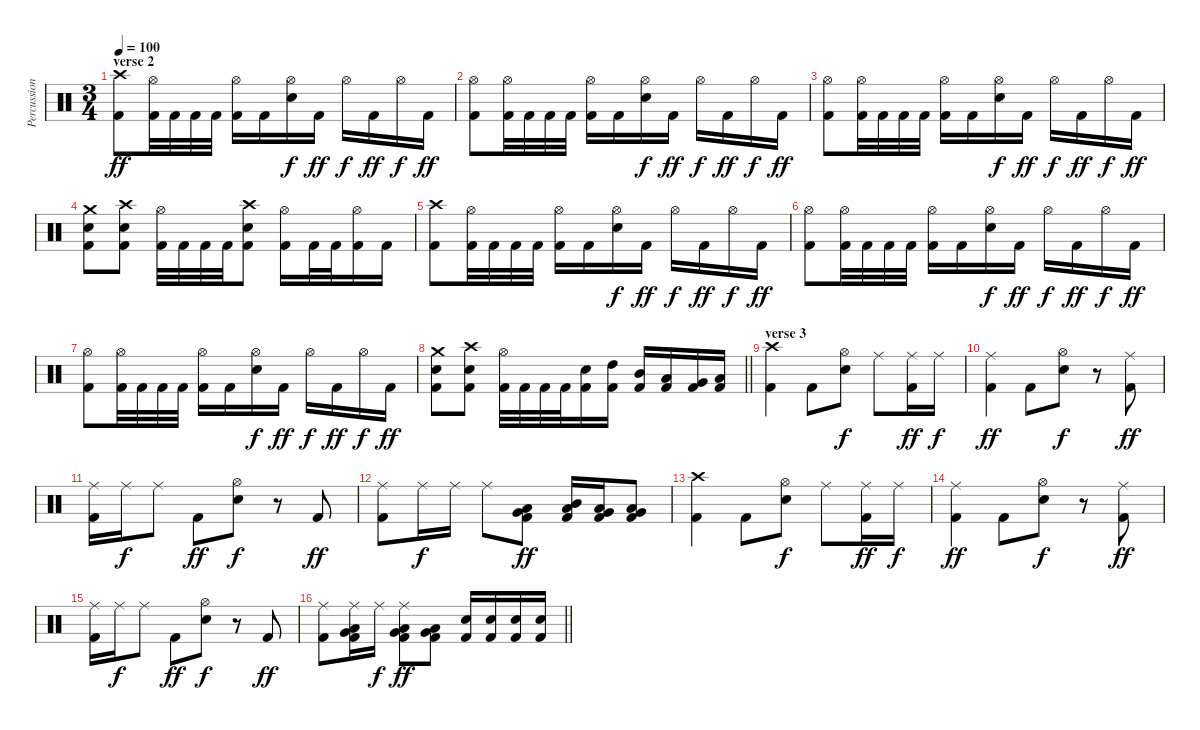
\track ("Percussion" "Percussion") {instrument percussion}
\staff {score}
\articulation defaults
\ts (3 4)
\section ("" "verse 2")
\tempo 100
\clef neutral
\ks c
("Crash high (hit)" "Kick (hit) 2").8{dy ff} ("Hi-Hat (open)" "Kick (hit) 2").32 "Kick (hit) 2".32 "Kick (hit) 2".32 "Kick (hit) 2".32 ("Hi-Hat (open)" "Kick (hit) 2").16 "Kick (hit) 2".16 ("Hi-Hat (open)" "Snare (hit) 2").16{dy f} "Kick (hit) 2".16{dy ff} "Hi-Hat (open)".16{dy f} "Kick (hit) 2".16{dy ff} "Hi-Hat (open)".16{dy f} "Kick (hit) 2".16{dy ff} |
("Hi-Hat (open)" "Kick (hit) 2").8 ("Hi-Hat (open)" "Kick (hit) 2").32 "Kick (hit) 2".32 "Kick (hit) 2".32 "Kick (hit) 2".32 ("Hi-Hat (open)" "Kick (hit) 2").16 "Kick (hit) 2".16 ("Hi-Hat (open)" "Snare (hit) 2").16{dy f} "Kick (hit) 2".16{dy ff} "Hi-Hat (open)".16{dy f} "Kick (hit) 2".16{dy ff} "Hi-Hat (open)".16{dy f} "Kick (hit) 2".16{dy ff} |
("Hi-Hat (open)" "Kick (hit) 2").8 ("Hi-Hat (open)" "Kick (hit) 2").32 "Kick (hit) 2".32 "Kick (hit) 2".32 "Kick (hit) 2".32 ("Hi-Hat (open)" "Kick (hit) 2").16 "Kick (hit) 2".16 ("Hi-Hat (open)" "Snare (hit) 2").16{dy f} "Kick (hit) 2".16{dy ff} "Hi-Hat (open)".16{dy f} "Kick (hit) 2".16{dy ff} "Hi-Hat (open)".16{dy f} "Kick (hit) 2".16{dy ff} |
("Crash medium (hit)" "Snare (hit) 2" "Kick (hit) 2").8 ("Crash high (hit)" "Snare (hit) 2" "Kick (hit) 2").8 ("Hi-Hat (open)" "Kick (hit) 2").32 "Kick (hit) 2".32 "Kick (hit) 2".32 "Kick (hit) 2".32 ("Crash high (hit)" "Snare (hit) 2" "Kick (hit) 2").8 ("Hi-Hat (open)" "Kick (hit) 2").16 "Kick (hit) 2".32 "Kick (hit) 2".32 ("Hi-Hat (open)" "Kick (hit) 2").16 "Kick (hit) 2".16 |
("Crash high (hit)" "Kick (hit) 2").8 ("Hi-Hat (open)" "Kick (hit) 2").32 "Kick (hit) 2".32 "Kick (hit) 2".32 "Kick (hit) 2".32 ("Hi-Hat (open)" "Kick (hit) 2").16 "Kick (hit) 2".16 ("Hi-Hat (open)" "Snare (hit) 2").16{dy f} "Kick (hit) 2".16{dy ff} "Hi-Hat (open)".16{dy f} "Kick (hit) 2".16{dy ff} "Hi-Hat (open)".16{dy f} "Kick (hit) 2".16{dy ff} |
("Hi-Hat (open)" "Kick (hit) 2").8 ("Hi-Hat (open)" "Kick (hit) 2").32 "Kick (hit) 2".32 "Kick (hit) 2".32 "Kick (hit) 2".32 ("Hi-Hat (open)" "Kick (hit) 2").16 "Kick (hit) 2".16 ("Hi-Hat (open)" "Snare (hit) 2").16{dy f} "Kick (hit) 2".16{dy ff} "Hi-Hat (open)".16{dy f} "Kick (hit) 2".16{dy ff} "Hi-Hat (open)".16{dy f} "Kick (hit) 2".16{dy ff} |
("Hi-Hat (open)" "Kick (hit) 2").8 ("Hi-Hat (open)" "Kick (hit) 2").32 "Kick (hit) 2".32 "Kick (hit) 2".32 "Kick (hit) 2".32 ("Hi-Hat (open)" "Kick (hit) 2").16 "Kick (hit) 2".16 ("Hi-Hat (open)" "Snare (hit) 2").16{dy f} "Kick (hit) 2".16{dy ff} "Hi-Hat (open)".16{dy f} "Kick (hit) 2".16{dy ff} "Hi-Hat (open)".16{dy f} "Kick (hit) 2".16{dy ff} |
\barLineRight lightlight
("Crash medium (hit)" "Snare (hit) 2" "Kick (hit) 2").8 ("Crash high (hit)" "Snare (hit) 2" "Kick (hit) 2").8 ("Hi-Hat (open)" "Kick (hit) 2").32 "Kick (hit) 2".32 "Kick (hit) 2".32 "Kick (hit) 2".32 ("Snare (hit) 2" "Kick (hit) 2").16 ("High Tom (hit)" "Kick (hit) 2").16 ("Mid Tom (hit)" "Kick (hit) 2").16 ("Low Tom (hit)" "Kick (hit) 2").16 ("Very Low Tom (hit)" "Kick (hit) 2").16 ("Low Floor Tom (hit)" "Kick (hit) 2").16 |
\section ("" "verse 3")
("Crash high (hit)" "Kick (hit) 2").4 "Kick (hit) 2".8 ("Hi-Hat (open)" "Snare (hit) 2").8{dy f} "Ride (middle)".8 ("Ride (middle)" "Kick (hit) 2").16{dy ff} "Ride (middle)".16{dy f} |
("Ride (middle)" "Kick (hit) 2").4{dy ff} "Kick (hit) 2".8 ("Hi-Hat (open)" "Snare (hit) 2").8{dy f} r.8 ("Ride (middle)" "Kick (hit) 2").8{dy ff} |
("Ride (middle)" "Kick (hit) 2").16 "Ride (middle)".16{dy f} "Ride (middle)".8 "Kick (hit) 2".8{dy ff} ("Hi-Hat (open)" "Snare (hit) 2").8{dy f} r.8 "Kick (hit) 2".8{dy ff} |
("Ride (middle)" "Kick (hit) 2").8 "Ride (middle)".16{dy f} "Ride (middle)".16 "Ride (middle)".8 ("Very Low Tom (hit)" "Low Tom (hit)" "Kick (hit) 2").8{dy ff} ("Low Tom (hit)" "Mid Tom (hit)" "Kick (hit) 2").16 ("Very Low Tom (hit)" "Low Tom (hit)" "Kick (hit) 2").16 ("Low Floor Tom (hit)" "Very Low Tom (hit)" "Kick (hit) 2").8 |
("Crash high (hit)" "Kick (hit) 2").4 "Kick (hit) 2".8 ("Hi-Hat (open)" "Snare (hit) 2").8{dy f} "Ride (middle)".8 ("Ride (middle)" "Kick (hit) 2").16{dy ff} "Ride (middle)".16{dy f} |
("Ride (middle)" "Kick (hit) 2").4{dy ff} "Kick (hit) 2".8 ("Hi-Hat (open)" "Snare (hit) 2").8{dy f} r.8 ("Ride (middle)" "Kick (hit) 2").8{dy ff} |
("Ride (middle)" "Kick (hit) 2").16 "Ride (middle)".16{dy f} "Ride (middle)".8 "Kick (hit) 2".8{dy ff} ("Hi-Hat (open)" "Snare (hit) 2").8{dy f} r.8 "Kick (hit) 2".8{dy ff} |
\barLineRight lightlight
("Ride (middle)" "Kick (hit) 2").8 ("Ride (middle)" "Very Low Tom (hit)" "Low Tom (hit)" "Kick (hit) 2").16 "Ride (middle)".16{dy f} ("Ride (middle)" "Very Low Tom (hit)" "Low Tom (hit)" "Kick (hit) 2").8{dy ff} ("Very Low Tom (hit)" "Low Tom (hit)" "Kick (hit) 2").8 ("Snare (hit) 2" "Kick (hit) 2").16 ("Snare (hit) 2" "Kick (hit) 2").16 ("Snare (hit) 2" "Kick (hit) 2").16 ("Snare (hit) 2" "Kick (hit) 2").16
